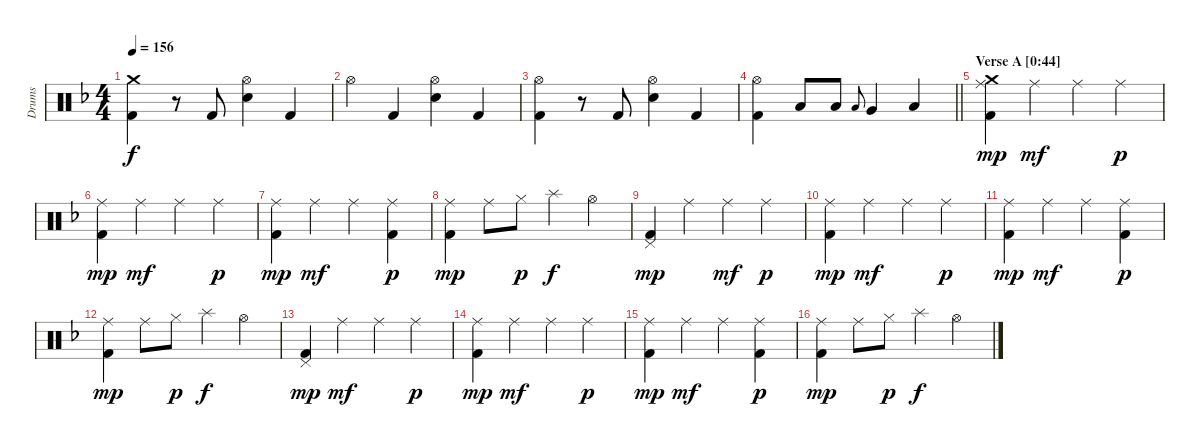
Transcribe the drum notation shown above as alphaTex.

\track ("Drums" "Drums") {instrument percussion}
\staff {score}
\articulation defaults
\ts (4 4)
\tempo 156
\clef neutral
\ks dminor
("Crash medium (hit)" "Kick (hit) 2").4{dy f} r.8 "Kick (hit) 2".8 ("Hi-Hat (open)" "Snare (hit) 2").4 "Kick (hit) 2".4 |
"Hi-Hat (open)".4 "Kick (hit) 2".4 ("Hi-Hat (open)" "Snare (hit) 2").4 "Kick (hit) 2".4 |
("Hi-Hat (open)" "Kick (hit) 2").4 r.8 "Kick (hit) 2".8 ("Hi-Hat (open)" "Snare (hit) 2").4 "Kick (hit) 2".4 |
\barLineRight lightlight
("Hi-Hat (open)" "Kick (hit) 2").4 "Low Tom (hit)".8 "Low Tom (hit)".8 "Low Floor Tom (hit)".8{gr onbeat} "Very Low Tom (hit)".4 "Low Floor Tom (hit)".4 |
\section ("" "Verse A [0:44]")
("Crash medium (hit)" "Ride (middle)" "Kick (hit) 2").4{dy mp} "Ride (middle)".4{dy mf} "Ride (middle)".4 "Ride (middle)".4{dy p} |
("Ride (middle)" "Kick (hit) 2").4{dy mp} "Ride (middle)".4{dy mf} "Ride (middle)".4 "Ride (middle)".4{dy p} |
("Ride (middle)" "Kick (hit) 2").4{dy mp} "Ride (middle)".4{dy mf} "Ride (middle)".4 ("Ride (middle)" "Kick (hit) 2").4{dy p} |
("Ride (middle)" "Kick (hit) 2").4{dy mp} "Ride (middle)".8 "Hi-Hat (closed)".8{dy p} "Splash (hit)".4{dy f} "Hi-Hat (open)".4 |
("Pedal Hi-Hat (hit)" "Kick (hit) 2").4{dy mp} "Ride (middle)".4 "Ride (middle)".4{dy mf} "Ride (middle)".4{dy p} |
("Ride (middle)" "Kick (hit) 2").4{dy mp} "Ride (middle)".4{dy mf} "Ride (middle)".4 "Ride (middle)".4{dy p} |
("Ride (middle)" "Kick (hit) 2").4{dy mp} "Ride (middle)".4{dy mf} "Ride (middle)".4 ("Ride (middle)" "Kick (hit) 2").4{dy p} |
("Ride (middle)" "Kick (hit) 2").4{dy mp} "Ride (middle)".8 "Hi-Hat (closed)".8{dy p} "Splash (hit)".4{dy f} "Hi-Hat (open)".4 |
("Pedal Hi-Hat (hit)" "Kick (hit) 2").4{dy mp} "Ride (middle)".4{dy mf} "Ride (middle)".4 "Ride (middle)".4{dy p} |
("Ride (middle)" "Kick (hit) 2").4{dy mp} "Ride (middle)".4{dy mf} "Ride (middle)".4 "Ride (middle)".4{dy p} |
("Ride (middle)" "Kick (hit) 2").4{dy mp} "Ride (middle)".4{dy mf} "Ride (middle)".4 ("Ride (middle)" "Kick (hit) 2").4{dy p} |
("Ride (middle)" "Kick (hit) 2").4{dy mp} "Ride (middle)".8 "Hi-Hat (closed)".8{dy p} "Splash (hit)".4{dy f} "Hi-Hat (open)".4
